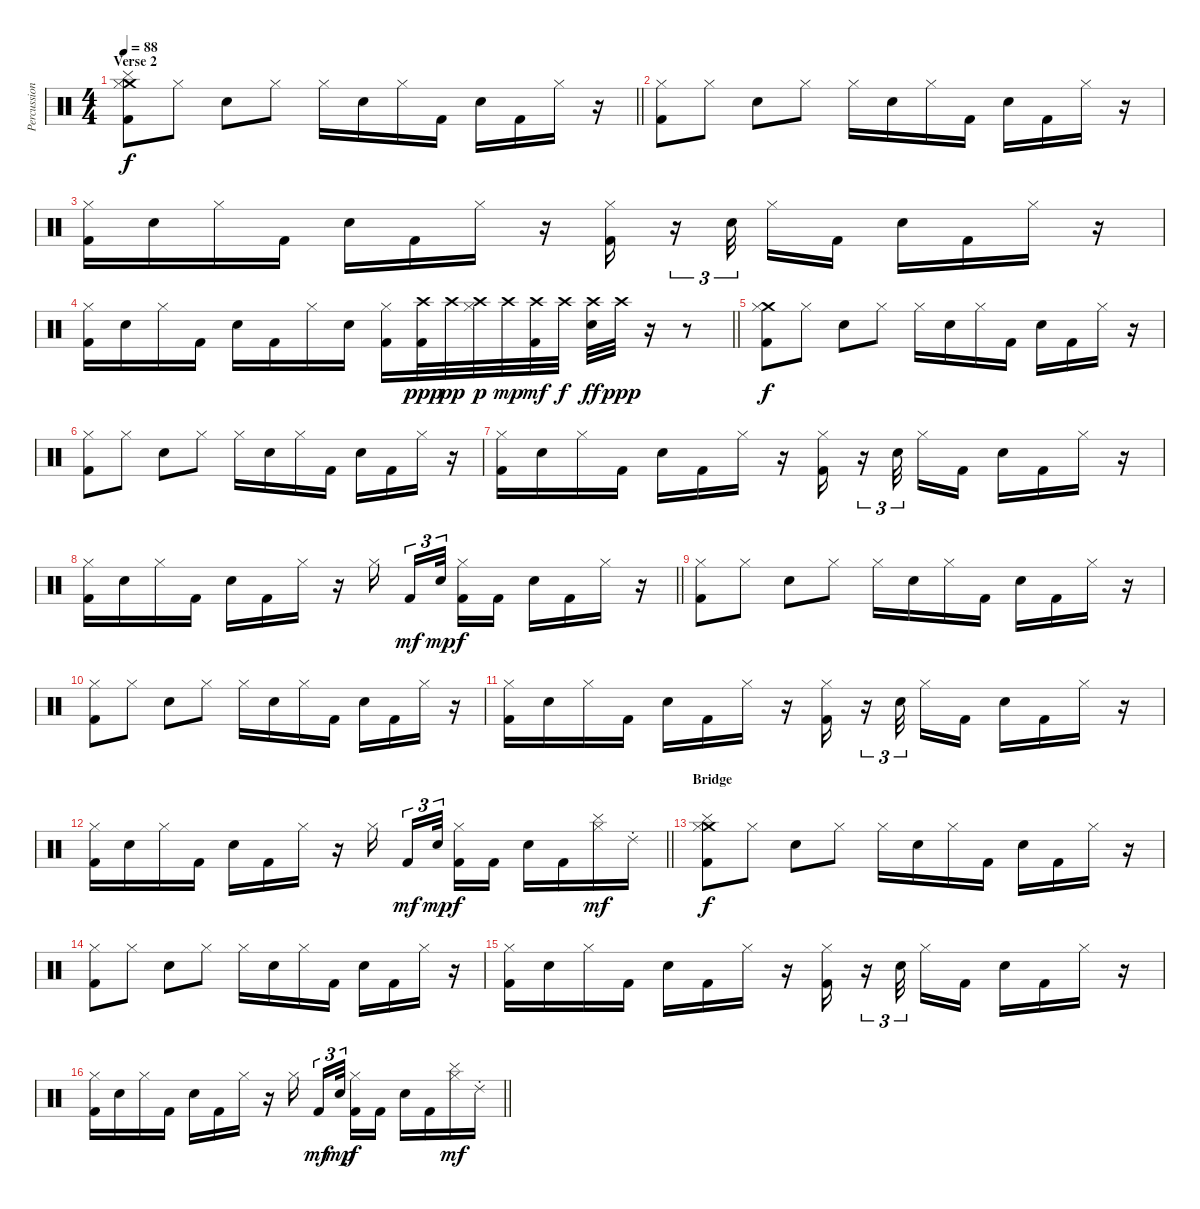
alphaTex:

\track ("Percussion" "Percussion") {instrument percussion}
\staff {score}
\articulation defaults
\ts (4 4)
\section ("" "Verse 2")
\tempo 88
\clef neutral
\barLineRight lightlight
\ks c
("Crash medium (hit)" "Cymbal (hit)" "Hi-Hat (closed)" "Kick (hit) 2").8{dy f} "Hi-Hat (closed)".8 "Snare (hit) 2".8 "Hi-Hat (closed)".8 "Hi-Hat (closed)".16 "Snare (hit) 2".16 "Hi-Hat (closed)".16 "Kick (hit) 2".16 "Snare (hit) 2".16 "Kick (hit) 2".16 "Hi-Hat (closed)".16 r.16 |
("Hi-Hat (closed)" "Kick (hit) 2").8 "Hi-Hat (closed)".8 "Snare (hit) 2".8 "Hi-Hat (closed)".8 "Hi-Hat (closed)".16 "Snare (hit) 2".16 "Hi-Hat (closed)".16 "Kick (hit) 2".16 "Snare (hit) 2".16 "Kick (hit) 2".16 "Hi-Hat (closed)".16 r.16 |
("Hi-Hat (closed)" "Kick (hit) 2").16 "Snare (hit) 2".16 "Hi-Hat (closed)".16 "Kick (hit) 2".16 "Snare (hit) 2".16 "Kick (hit) 2".16 "Hi-Hat (closed)".16 r.16 ("Hi-Hat (closed)" "Kick (hit) 2").16 r.16{tu (3 2)} "Snare (hit) 2".32{tu (3 2) beam splitsecondary} "Hi-Hat (closed)".16 "Kick (hit) 2".16 "Snare (hit) 2".16 "Kick (hit) 2".16 "Hi-Hat (closed)".16 r.16 |
\barLineRight lightlight
("Hi-Hat (closed)" "Kick (hit) 2").16 "Snare (hit) 2".16 "Hi-Hat (closed)".16 "Kick (hit) 2".16 "Snare (hit) 2".16 "Kick (hit) 2".16 "Hi-Hat (closed)".16 "Snare (hit) 2".16 ("Hi-Hat (closed)" "Kick (hit) 2").16 ("Crash high (hit)" "Kick (hit) 2").32{dy ppp} "Crash high (hit)".32{dy pp} ("Crash high (hit)" "Hi-Hat (closed)").32{dy p} "Crash high (hit)".32{dy mp} ("Crash high (hit)" "Kick (hit) 2").32{dy mf} "Crash high (hit)".32{dy f} ("Crash high (hit)" "Snare (hit) 2").32{dy ff} "Crash high (hit)".32{dy ppp} r.16 r.8 |
("Crash medium (hit)" "Hi-Hat (closed)" "Kick (hit) 2").8{dy f} "Hi-Hat (closed)".8 "Snare (hit) 2".8 "Hi-Hat (closed)".8 "Hi-Hat (closed)".16 "Snare (hit) 2".16 "Hi-Hat (closed)".16 "Kick (hit) 2".16 "Snare (hit) 2".16 "Kick (hit) 2".16 "Hi-Hat (closed)".16 r.16 |
("Hi-Hat (closed)" "Kick (hit) 2").8 "Hi-Hat (closed)".8 "Snare (hit) 2".8 "Hi-Hat (closed)".8 "Hi-Hat (closed)".16 "Snare (hit) 2".16 "Hi-Hat (closed)".16 "Kick (hit) 2".16 "Snare (hit) 2".16 "Kick (hit) 2".16 "Hi-Hat (closed)".16 r.16 |
("Hi-Hat (closed)" "Kick (hit) 2").16 "Snare (hit) 2".16 "Hi-Hat (closed)".16 "Kick (hit) 2".16 "Snare (hit) 2".16 "Kick (hit) 2".16 "Hi-Hat (closed)".16 r.16 ("Hi-Hat (closed)" "Kick (hit) 2").16 r.16{tu (3 2)} "Snare (hit) 2".32{tu (3 2) beam splitsecondary} "Hi-Hat (closed)".16 "Kick (hit) 2".16 "Snare (hit) 2".16 "Kick (hit) 2".16 "Hi-Hat (closed)".16 r.16 |
\barLineRight lightlight
("Hi-Hat (closed)" "Kick (hit) 2").16 "Snare (hit) 2".16 "Hi-Hat (closed)".16 "Kick (hit) 2".16 "Snare (hit) 2".16 "Kick (hit) 2".16 "Hi-Hat (closed)".16 r.16 "Hi-Hat (closed)".16{beam splitsecondary} "Kick (hit) 2".16{tu (3 2) dy mf} "Snare (hit) 2".32{tu (3 2) dy mp beam splitsecondary} ("Hi-Hat (closed)" "Kick (hit) 2").16{dy f} "Kick (hit) 2".16 "Snare (hit) 2".16 "Kick (hit) 2".16 "Hi-Hat (closed)".16 r.16 |
("Hi-Hat (closed)" "Kick (hit) 2").8 "Hi-Hat (closed)".8 "Snare (hit) 2".8 "Hi-Hat (closed)".8 "Hi-Hat (closed)".16 "Snare (hit) 2".16 "Hi-Hat (closed)".16 "Kick (hit) 2".16 "Snare (hit) 2".16 "Kick (hit) 2".16 "Hi-Hat (closed)".16 r.16 |
("Hi-Hat (closed)" "Kick (hit) 2").8 "Hi-Hat (closed)".8 "Snare (hit) 2".8 "Hi-Hat (closed)".8 "Hi-Hat (closed)".16 "Snare (hit) 2".16 "Hi-Hat (closed)".16 "Kick (hit) 2".16 "Snare (hit) 2".16 "Kick (hit) 2".16 "Hi-Hat (closed)".16 r.16 |
("Hi-Hat (closed)" "Kick (hit) 2").16 "Snare (hit) 2".16 "Hi-Hat (closed)".16 "Kick (hit) 2".16 "Snare (hit) 2".16 "Kick (hit) 2".16 "Hi-Hat (closed)".16 r.16 ("Hi-Hat (closed)" "Kick (hit) 2").16 r.16{tu (3 2)} "Snare (hit) 2".32{tu (3 2) beam splitsecondary} "Hi-Hat (closed)".16 "Kick (hit) 2".16 "Snare (hit) 2".16 "Kick (hit) 2".16 "Hi-Hat (closed)".16 r.16 |
\barLineRight lightlight
("Hi-Hat (closed)" "Kick (hit) 2").16 "Snare (hit) 2".16 "Hi-Hat (closed)".16 "Kick (hit) 2".16 "Snare (hit) 2".16 "Kick (hit) 2".16 "Hi-Hat (closed)".16 r.16 "Hi-Hat (closed)".16{beam splitsecondary} "Kick (hit) 2".16{tu (3 2) dy mf} "Snare (hit) 2".32{tu (3 2) dy mp beam splitsecondary} ("Hi-Hat (closed)" "Kick (hit) 2").16{dy f} "Kick (hit) 2".16 "Snare (hit) 2".16 "Kick (hit) 2".16 ("Cymbal (hit)" "Hi-Hat (closed)").16{dy mf} "Ride (choke) 2".16 |
\section ("" "Bridge")
("Crash medium (hit)" "Cymbal (hit)" "Hi-Hat (closed)" "Kick (hit) 2").8{dy f} "Hi-Hat (closed)".8 "Snare (hit) 2".8 "Hi-Hat (closed)".8 "Hi-Hat (closed)".16 "Snare (hit) 2".16 "Hi-Hat (closed)".16 "Kick (hit) 2".16 "Snare (hit) 2".16 "Kick (hit) 2".16 "Hi-Hat (closed)".16 r.16 |
("Hi-Hat (closed)" "Kick (hit) 2").8 "Hi-Hat (closed)".8 "Snare (hit) 2".8 "Hi-Hat (closed)".8 "Hi-Hat (closed)".16 "Snare (hit) 2".16 "Hi-Hat (closed)".16 "Kick (hit) 2".16 "Snare (hit) 2".16 "Kick (hit) 2".16 "Hi-Hat (closed)".16 r.16 |
("Hi-Hat (closed)" "Kick (hit) 2").16 "Snare (hit) 2".16 "Hi-Hat (closed)".16 "Kick (hit) 2".16 "Snare (hit) 2".16 "Kick (hit) 2".16 "Hi-Hat (closed)".16 r.16 ("Hi-Hat (closed)" "Kick (hit) 2").16 r.16{tu (3 2)} "Snare (hit) 2".32{tu (3 2) beam splitsecondary} "Hi-Hat (closed)".16 "Kick (hit) 2".16 "Snare (hit) 2".16 "Kick (hit) 2".16 "Hi-Hat (closed)".16 r.16 |
\barLineRight lightlight
("Hi-Hat (closed)" "Kick (hit) 2").16 "Snare (hit) 2".16 "Hi-Hat (closed)".16 "Kick (hit) 2".16 "Snare (hit) 2".16 "Kick (hit) 2".16 "Hi-Hat (closed)".16 r.16 "Hi-Hat (closed)".16{beam splitsecondary} "Kick (hit) 2".16{tu (3 2) dy mf} "Snare (hit) 2".32{tu (3 2) dy mp beam splitsecondary} ("Hi-Hat (closed)" "Kick (hit) 2").16{dy f} "Kick (hit) 2".16 "Snare (hit) 2".16 "Kick (hit) 2".16 ("Cymbal (hit)" "Hi-Hat (closed)").16{dy mf} "Ride (choke) 2".16
